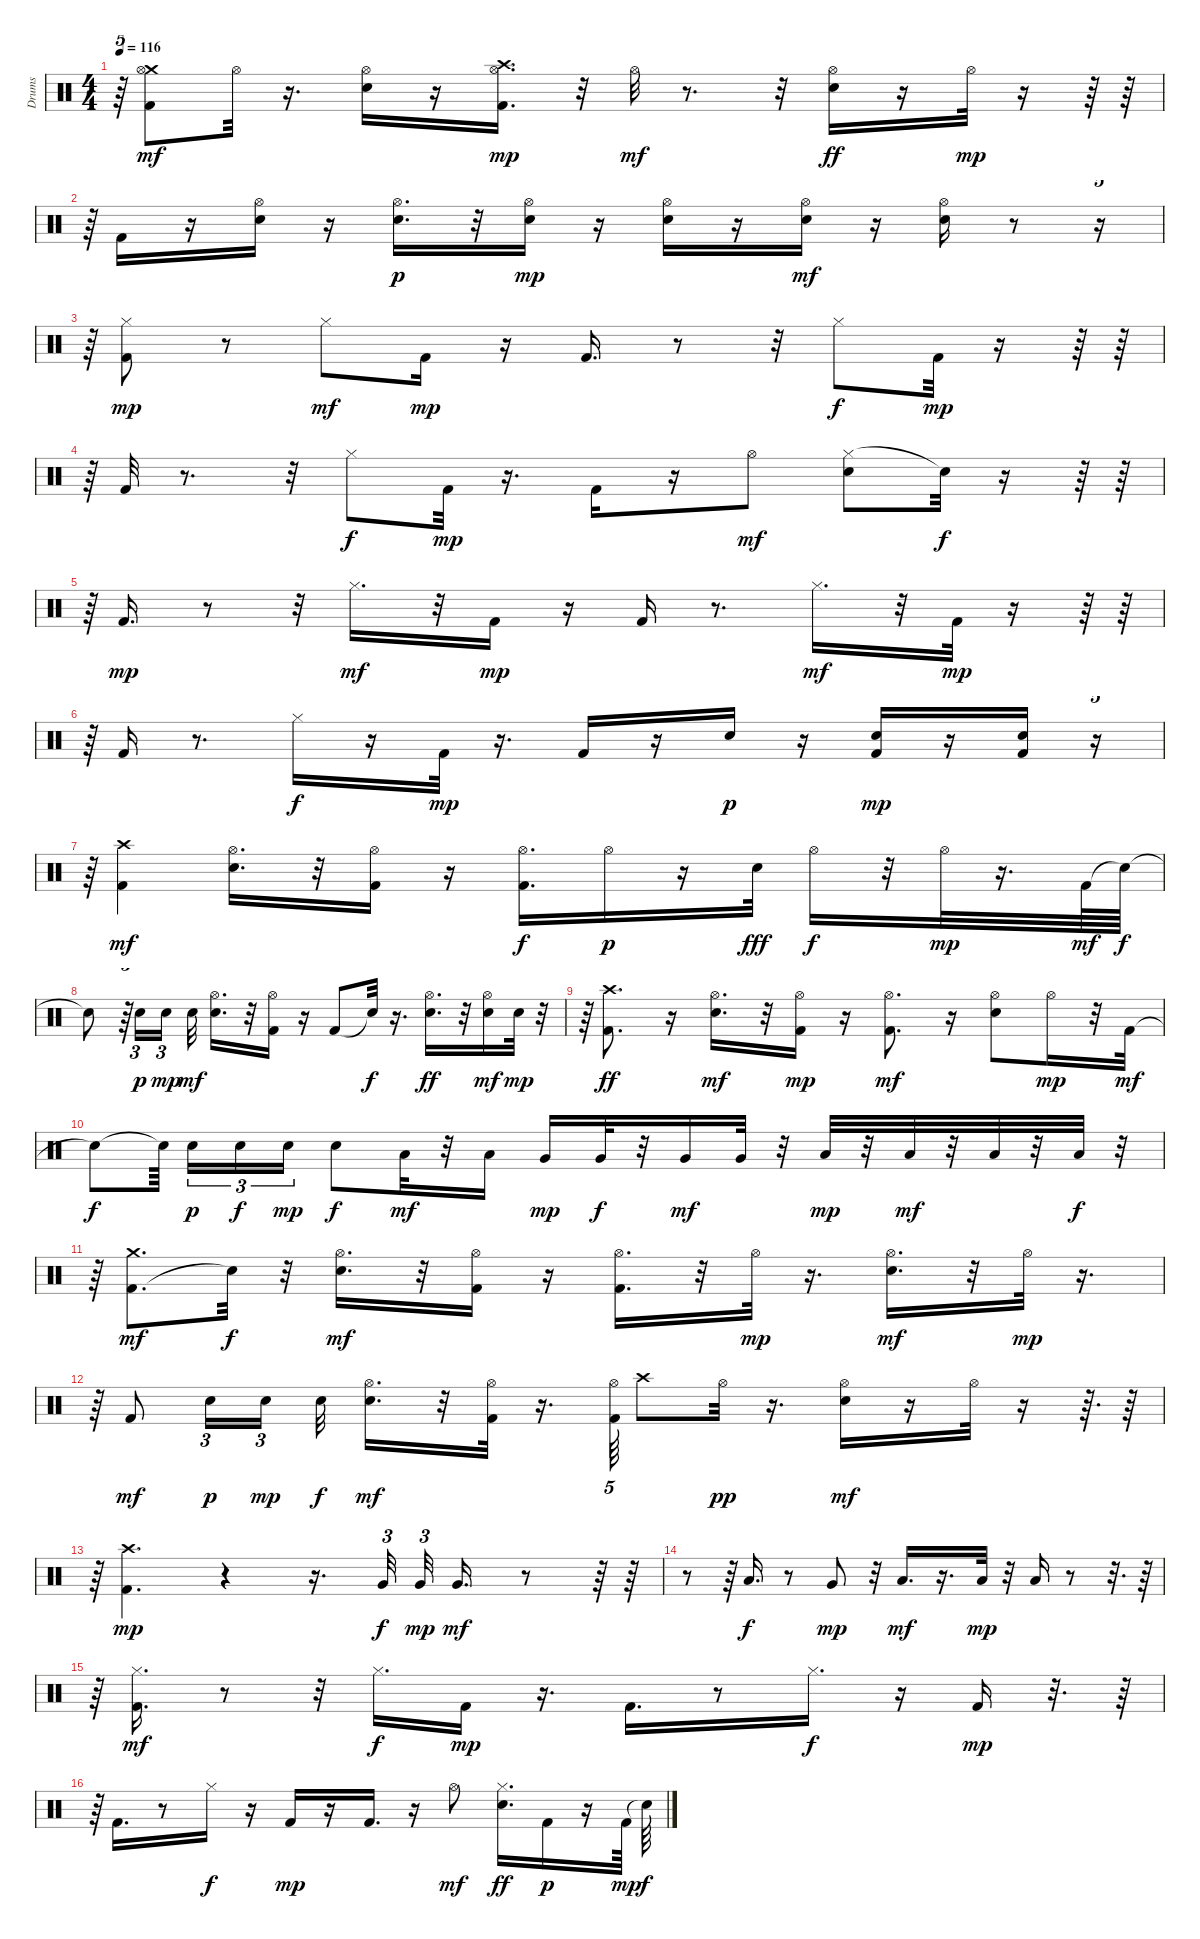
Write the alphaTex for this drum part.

\track ("Drums" "Drums") {instrument percussion}
\staff {score}
\articulation defaults
\ts (4 4)
\tempo 116
\clef neutral
\ks c
r.64{tu (5 4) dy mf} ("Crash medium (hit)" "Hi-Hat (open)" "Kick (hit) 2").8 "Hi-Hat (open)".32 r.16{d} ("Hi-Hat (open)" "Electric Snare (hit)").16 r.16 ("Crash high (hit)" "Hi-Hat (open)" "Kick (hit) 2").16{d dy mp} r.32 "Hi-Hat (open)".32{dy mf} r.8{d} r.32 ("Hi-Hat (open)" "Electric Snare (hit)").16{dy ff} r.16 "Hi-Hat (open)".32{dy mp} r.16 r.64 r.64 |
r.64{tu (5 4)} "Kick (hit) 2".16 r.16 ("Hi-Hat (open)" "Electric Snare (hit)").16 r.16 ("Hi-Hat (open)" "Electric Snare (hit)").16{d dy p} r.32 ("Electric Snare (hit)" "Hi-Hat (open)").16{dy mp} r.16 ("Electric Snare (hit)" "Hi-Hat (open)").16 r.16 ("Electric Snare (hit)" "Hi-Hat (open)").16{dy mf} r.16 ("Hi-Hat (open)" "Electric Snare (hit)").16 r.8 r.16{tu (5 4)} |
r.64{tu (5 4)} ("Hi-Hat (closed)" "Kick (hit) 2").8{dy mp} r.8 "Hi-Hat (closed)".8{dy mf} "Kick (hit) 2".16{dy mp} r.16 "Kick (hit) 2".16{d} r.8 r.32 "Hi-Hat (closed)".8{dy f} "Kick (hit) 2".32{dy mp} r.16 r.64 r.64 |
r.64{tu (5 4)} "Kick (hit) 2".32 r.8{d} r.32 "Hi-Hat (closed)".8{dy f} "Kick (hit) 2".32{dy mp} r.16{d} "Kick (hit) 2".16 r.16 "Hi-Hat (open)".8{dy mf} ("Hi-Hat (closed)" "Electric Snare (hit)").8 "Snare (hit)"{t}.32{dy f} r.16 r.64 r.64 |
r.64{tu (5 4)} "Kick (hit) 2".16{d dy mp} r.8 r.32 "Hi-Hat (closed)".16{d dy mf} r.32 "Kick (hit) 2".16{dy mp} r.16 "Kick (hit) 2".16 r.8{d} "Hi-Hat (closed)".16{d dy mf} r.32 "Kick (hit) 2".32{dy mp} r.16 r.64 r.64 |
r.64{tu (5 4)} "Kick (hit) 2".16 r.8{d} "Hi-Hat (closed)".16{dy f} r.16 "Kick (hit) 2".32{dy mp} r.16{d} "Kick (hit) 2".16 r.16 "Electric Snare (hit)".16{dy p} r.16 ("Kick (hit) 2" "Electric Snare (hit)").16{dy mp} r.16 ("Electric Snare (hit)" "Kick (hit) 2").16 r.16{tu (5 4)} |
r.64{tu (5 4)} ("Kick (hit) 2" "Crash high (hit)").4{dy mf} ("Hi-Hat (open)" "Electric Snare (hit)").16{d} r.32 ("Hi-Hat (open)" "Kick (hit) 2").16 r.16 ("Hi-Hat (open)" "Kick (hit) 2").16{d dy f} "Hi-Hat (open)".16{dy p} r.16 "Electric Snare (hit)".32{dy fff} "Hi-Hat (open)".16{dy f} r.32 "Hi-Hat (open)".32{dy mp} r.16{d} "Kick (hit) 2".64{dy mf} "Snare (hit)"{t}.64{dy f} |
"Snare (hit)"{t}.8 r.64{tu (5 4)} "Electric Snare (hit)".16{tu (3 2) dy p} "Electric Snare (hit)".16{tu (3 2) dy mp beam splitsecondary} "Electric Snare (hit)".32{dy mf} ("Electric Snare (hit)" "Hi-Hat (open)").16{d} r.32 ("Hi-Hat (open)" "Kick (hit) 2").16 r.16 "Kick (hit) 2".8 "Snare (hit)"{t}.32{dy f} r.16{d} ("Hi-Hat (open)" "Electric Snare (hit)").16{d dy ff} r.32 ("Electric Snare (hit)" "Hi-Hat (open)").16{dy mf} "Electric Snare (hit)".32{dy mp} r.32 |
r.64 ("Crash high (hit)" "Kick (hit) 2").8{d dy ff} r.16 ("Electric Snare (hit)" "Hi-Hat (open)").16{d dy mf} r.32 ("Kick (hit) 2" "Hi-Hat (open)").16{dy mp} r.16 ("Kick (hit) 2" "Hi-Hat (open)").8{d dy mf} r.16 ("Electric Snare (hit)" "Hi-Hat (open)").8 "Hi-Hat (open)".16{dy mp} r.32 "Kick (hit) 2".32{dy mf} |
"Snare (hit)"{t}.8{dy f} "Snare (hit)"{t}.64{beam splitsecondary} "Electric Snare (hit)".16{tu (3 2) dy p} "Electric Snare (hit)".16{tu (3 2) dy f} "Electric Snare (hit)".16{tu (3 2) dy mp} "Electric Snare (hit)".8{dy f} "Low Tom (hit)".32{dy mf} r.32 "Low Tom (hit)".16 "Very Low Tom (hit)".16{dy mp} "Very Low Tom (hit)".32{dy f} r.32 "Very Low Tom (hit)".16{dy mf} "Very Low Tom (hit)".32 r.32 "Low Floor Tom (hit)".32{dy mp} r.32 "Low Floor Tom (hit)".32{dy mf} r.32 "Low Floor Tom (hit)".32 r.32 "Low Floor Tom (hit)".32{dy f} r.32 |
r.64 ("Kick (hit) 2" "Crash medium (hit)").8{d dy mf} "Snare (hit)"{t}.32{dy f} r.32 ("Electric Snare (hit)" "Hi-Hat (open)").16{d dy mf} r.32 ("Hi-Hat (open)" "Kick (hit) 2").16 r.16 ("Hi-Hat (open)" "Kick (hit) 2").16{d} r.32 "Hi-Hat (open)".32{dy mp} r.16{d} ("Hi-Hat (open)" "Electric Snare (hit)").16{d dy mf} r.32 "Hi-Hat (open)".32{dy mp} r.16{d} |
r.64 "Kick (hit) 2".8{dy mf} "Electric Snare (hit)".16{tu (3 2) dy p} "Electric Snare (hit)".16{tu (3 2) dy mp beam splitsecondary} "Electric Snare (hit)".32{dy f} ("Hi-Hat (open)" "Electric Snare (hit)").16{d dy mf} r.32 ("Hi-Hat (open)" "Kick (hit) 2").32 r.16{d} ("Hi-Hat (open)" "Kick (hit) 2").64{tu (5 4)} "Crash high (hit)".8 "Hi-Hat (open)".32{dy pp} r.16{d} ("Hi-Hat (open)" "Electric Snare (hit)").16{dy mf} r.16 "Hi-Hat (open)".32 r.16 r.64{d} r.64 |
r.64 ("Kick (hit) 2" "Crash high (hit)").4{d dy mp} r.4 r.16{d} "Very Low Tom (hit)".32{tu (3 2) dy f} "Very Low Tom (hit)".32{tu (3 2) dy mp} "Very Low Tom (hit)".16{d dy mf} r.8 r.64 r.64 |
r.8 r.64 "Low Floor Tom (hit)".16{d dy f} r.8 "Very Low Tom (hit)".8{dy mp} r.32 "Low Floor Tom (hit)".16{d dy mf} r.16{d} "Low Floor Tom (hit)".32{dy mp} r.32 "Low Floor Tom (hit)".16 r.8 r.32{d} r.64 |
r.64 ("Kick (hit) 2" "Hi-Hat (closed)").16{d dy mf} r.8 r.32 "Hi-Hat (closed)".16{d dy f} "Kick (hit) 2".16{dy mp} r.16{d} "Kick (hit) 2".16{d} r.8 "Hi-Hat (closed)".16{d dy f} r.16 "Kick (hit) 2".16{dy mp} r.32{d} r.64 |
r.64 "Kick (hit) 2".16{d} r.8 "Hi-Hat (closed)".16{dy f} r.16 "Kick (hit) 2".16{dy mp} r.16 "Kick (hit) 2".16{d} r.16 "Hi-Hat (open)".8{dy mf} ("Electric Snare (hit)" "Hi-Hat (closed)").16{d dy ff} "Kick (hit) 2".16{dy p} r.16 "Kick (hit) 2".64{dy mp} "Snare (hit)"{t}.64{dy f}
